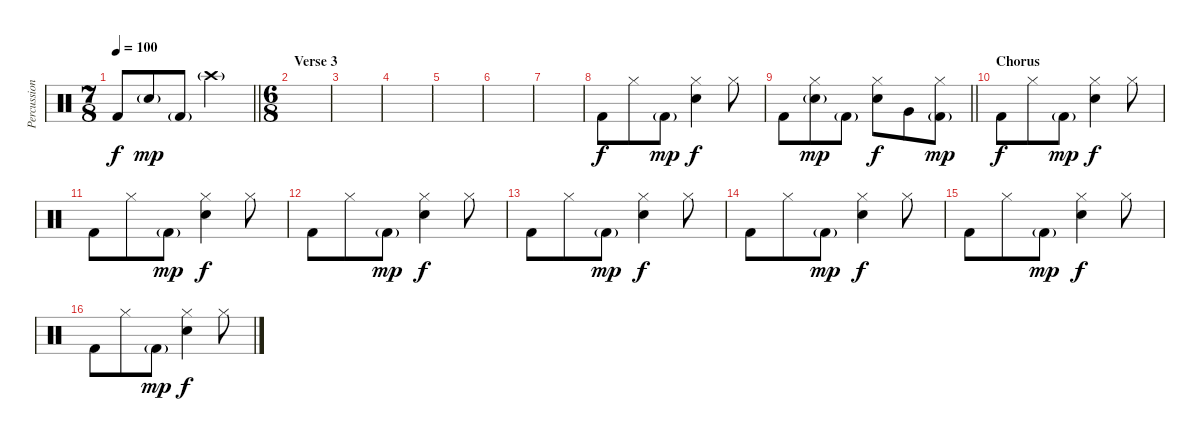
\track ("Percussion" "Percussion") {instrument percussion}
\staff {score}
\articulation defaults
\ts (7 8)
\tempo 100
\clef neutral
\barLineRight lightlight
\ks c "Kick (hit) 2".8{dy f} "Snare (hit) 2"{g}.8{dy mp} "Kick (hit) 2"{g}.8 "Crash high (hit)"{g}.2
|
\ts (6 8)
\section ("" "Verse 3")
|
|
|
|
|
|
"Kick (hit) 2".8{dy f} "Hi-Hat (closed)".8 "Kick (hit) 2"{g}.8{dy mp} ("Hi-Hat (closed)" "Snare (hit) 2").4{dy f} "Hi-Hat (closed)".8 |
\barLineRight lightlight "Kick (hit) 2".8
("Hi-Hat (closed)" "Snare (hit) 2"{g}).8{dy mp} "Kick (hit) 2"{g}.8 ("Hi-Hat (closed)" "Snare (hit) 2").8{dy f} "Very Low Tom (hit)".8 ("Hi-Hat (closed)" "Kick (hit) 2"{g}).8{dy mp} |
\section ("" "Chorus")
"Kick (hit) 2".8{dy f} "Hi-Hat (closed)".8 "Kick (hit) 2"{g}.8{dy mp} ("Hi-Hat (closed)" "Snare (hit) 2").4{dy f} "Hi-Hat (closed)".8 |
"Kick (hit) 2".8 "Hi-Hat (closed)".8 "Kick (hit) 2"{g}.8{dy mp} ("Hi-Hat (closed)" "Snare (hit) 2").4{dy f} "Hi-Hat (closed)".8 |
"Kick (hit) 2".8 "Hi-Hat (closed)".8 "Kick (hit) 2"{g}.8{dy mp} ("Hi-Hat (closed)" "Snare (hit) 2").4{dy f} "Hi-Hat (closed)".8 |
"Kick (hit) 2".8 "Hi-Hat (closed)".8 "Kick (hit) 2"{g}.8{dy mp} ("Hi-Hat (closed)" "Snare (hit) 2").4{dy f} "Hi-Hat (closed)".8 |
"Kick (hit) 2".8 "Hi-Hat (closed)".8 "Kick (hit) 2"{g}.8{dy mp} ("Hi-Hat (closed)" "Snare (hit) 2").4{dy f} "Hi-Hat (closed)".8 |
"Kick (hit) 2".8 "Hi-Hat (closed)".8 "Kick (hit) 2"{g}.8{dy mp} ("Hi-Hat (closed)" "Snare (hit) 2").4{dy f} "Hi-Hat (closed)".8 |
"Kick (hit) 2".8 "Hi-Hat (closed)".8 "Kick (hit) 2"{g}.8{dy mp} ("Hi-Hat (closed)" "Snare (hit) 2").4{dy f} "Hi-Hat (closed)".8
